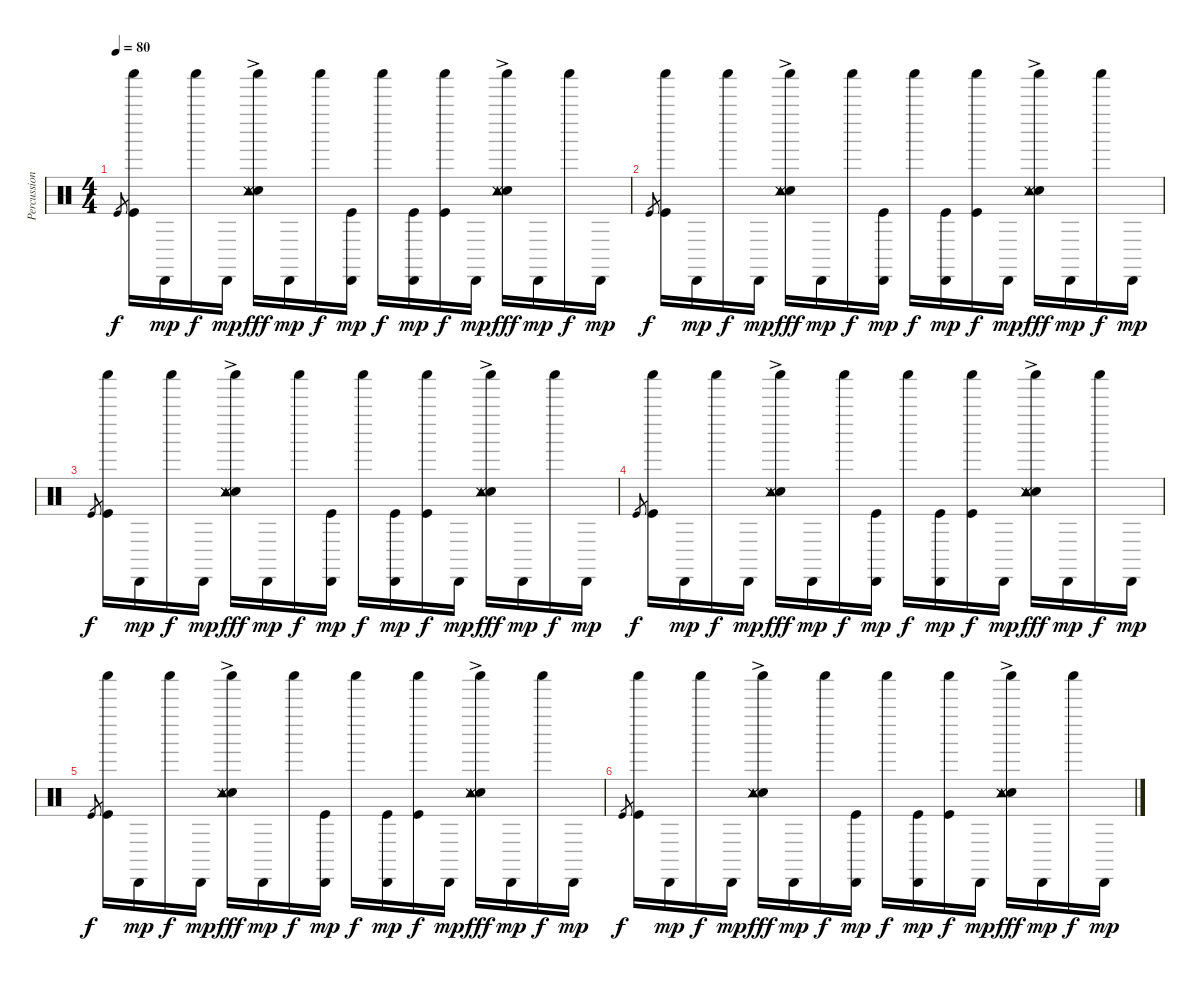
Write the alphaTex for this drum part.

\track ("Percussions" "Percussion") {instrument percussion}
\staff {score}
\articulation defaults
\ts (4 4)
\tempo 80
\clef neutral
\ks c "Kick (hit)".8{gr dy f}
("Shaker (hit)" "Kick (hit)").16 "Cabasa (hit)".16{dy mp} "Shaker (hit)".16{dy f} "Cabasa (hit)".16{dy mp} ("Shaker (hit)" "Electric Snare (hit)" "Tambourine (hit)"{ac} "Snare (side stick) 3" "Metronome (hit)").16{dy fff} "Cabasa (hit)".16{dy mp} "Shaker (hit)".16{dy f} ("Cabasa (hit)" "Kick (hit)").16{dy mp} "Shaker (hit)".16{dy f} ("Cabasa (hit)" "Kick (hit)").16{dy mp} ("Shaker (hit)" "Kick (hit)").16{dy f} "Cabasa (hit)".16{dy mp} ("Shaker (hit)" "Electric Snare (hit)" "Tambourine (hit)"{ac} "Snare (side stick) 3" "Metronome (hit)").16{dy fff} "Cabasa (hit)".16{dy mp} "Shaker (hit)".16{dy f} "Cabasa (hit)".16{dy mp} |
"Kick (hit)".8{gr dy f} ("Shaker (hit)" "Kick (hit)").16 "Cabasa (hit)".16{dy mp} "Shaker (hit)".16{dy f} "Cabasa (hit)".16{dy mp} ("Shaker (hit)" "Electric Snare (hit)" "Tambourine (hit)"{ac} "Snare (side stick) 3" "Metronome (hit)").16{dy fff} "Cabasa (hit)".16{dy mp} "Shaker (hit)".16{dy f} ("Cabasa (hit)" "Kick (hit)").16{dy mp} "Shaker (hit)".16{dy f} ("Cabasa (hit)" "Kick (hit)").16{dy mp} ("Shaker (hit)" "Kick (hit)").16{dy f} "Cabasa (hit)".16{dy mp} ("Shaker (hit)" "Electric Snare (hit)" "Tambourine (hit)"{ac} "Snare (side stick) 3" "Metronome (hit)").16{dy fff} "Cabasa (hit)".16{dy mp} "Shaker (hit)".16{dy f} "Cabasa (hit)".16{dy mp} |
"Kick (hit)".8{gr dy f} ("Shaker (hit)" "Kick (hit)").16 "Cabasa (hit)".16{dy mp} "Shaker (hit)".16{dy f} "Cabasa (hit)".16{dy mp} ("Shaker (hit)" "Electric Snare (hit)" "Tambourine (hit)"{ac} "Snare (side stick) 3" "Metronome (hit)").16{dy fff} "Cabasa (hit)".16{dy mp} "Shaker (hit)".16{dy f} ("Cabasa (hit)" "Kick (hit)").16{dy mp} "Shaker (hit)".16{dy f} ("Cabasa (hit)" "Kick (hit)").16{dy mp} ("Shaker (hit)" "Kick (hit)").16{dy f} "Cabasa (hit)".16{dy mp} ("Shaker (hit)" "Electric Snare (hit)" "Tambourine (hit)"{ac} "Snare (side stick) 3" "Metronome (hit)").16{dy fff} "Cabasa (hit)".16{dy mp} "Shaker (hit)".16{dy f} "Cabasa (hit)".16{dy mp} |
"Kick (hit)".8{gr dy f} ("Shaker (hit)" "Kick (hit)").16 "Cabasa (hit)".16{dy mp} "Shaker (hit)".16{dy f} "Cabasa (hit)".16{dy mp} ("Shaker (hit)" "Electric Snare (hit)" "Tambourine (hit)"{ac} "Snare (side stick) 3" "Metronome (hit)").16{dy fff} "Cabasa (hit)".16{dy mp} "Shaker (hit)".16{dy f} ("Cabasa (hit)" "Kick (hit)").16{dy mp} "Shaker (hit)".16{dy f} ("Cabasa (hit)" "Kick (hit)").16{dy mp} ("Shaker (hit)" "Kick (hit)").16{dy f} "Cabasa (hit)".16{dy mp} ("Shaker (hit)" "Electric Snare (hit)" "Tambourine (hit)"{ac} "Snare (side stick) 3" "Metronome (hit)").16{dy fff} "Cabasa (hit)".16{dy mp} "Shaker (hit)".16{dy f} "Cabasa (hit)".16{dy mp} |
"Kick (hit)".8{gr dy f} ("Shaker (hit)" "Kick (hit)").16 "Cabasa (hit)".16{dy mp} "Shaker (hit)".16{dy f} "Cabasa (hit)".16{dy mp} ("Shaker (hit)" "Electric Snare (hit)" "Tambourine (hit)"{ac} "Snare (side stick) 3" "Metronome (hit)").16{dy fff} "Cabasa (hit)".16{dy mp} "Shaker (hit)".16{dy f} ("Cabasa (hit)" "Kick (hit)").16{dy mp} "Shaker (hit)".16{dy f} ("Cabasa (hit)" "Kick (hit)").16{dy mp} ("Shaker (hit)" "Kick (hit)").16{dy f} "Cabasa (hit)".16{dy mp} ("Shaker (hit)" "Electric Snare (hit)" "Tambourine (hit)"{ac} "Snare (side stick) 3" "Metronome (hit)").16{dy fff} "Cabasa (hit)".16{dy mp} "Shaker (hit)".16{dy f} "Cabasa (hit)".16{dy mp} |
"Kick (hit)".8{gr dy f} ("Shaker (hit)" "Kick (hit)").16 "Cabasa (hit)".16{dy mp} "Shaker (hit)".16{dy f} "Cabasa (hit)".16{dy mp} ("Shaker (hit)" "Electric Snare (hit)" "Tambourine (hit)"{ac} "Snare (side stick) 3" "Metronome (hit)").16{dy fff} "Cabasa (hit)".16{dy mp} "Shaker (hit)".16{dy f} ("Cabasa (hit)" "Kick (hit)").16{dy mp} "Shaker (hit)".16{dy f} ("Cabasa (hit)" "Kick (hit)").16{dy mp} ("Shaker (hit)" "Kick (hit)").16{dy f} "Cabasa (hit)".16{dy mp} ("Shaker (hit)" "Electric Snare (hit)" "Tambourine (hit)"{ac} "Snare (side stick) 3" "Metronome (hit)").16{dy fff} "Cabasa (hit)".16{dy mp} "Shaker (hit)".16{dy f} "Cabasa (hit)".16{dy mp}
